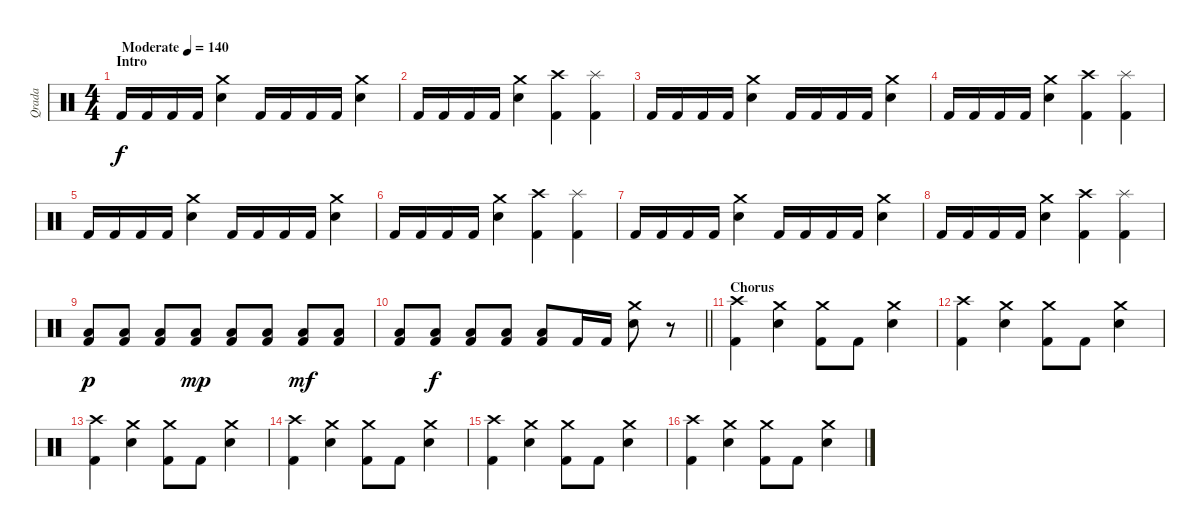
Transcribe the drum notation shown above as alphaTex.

\track ("Qrada" "Qrada") {instrument percussion}
\staff {score}
\articulation defaults
\ts (4 4)
\section ("" "Intro")
\tempo (140 "Moderate")
\clef neutral
\ks c "Kick (hit) 2".16{dy f} "Kick (hit) 2".16 "Kick (hit) 2".16 "Kick (hit) 2".16
("Snare (hit) 2" "Crash medium (hit)").4 "Kick (hit) 2".16 "Kick (hit) 2".16 "Kick (hit) 2".16 "Kick (hit) 2".16 ("Snare (hit) 2" "Crash medium (hit)").4 |
"Kick (hit) 2".16 "Kick (hit) 2".16 "Kick (hit) 2".16 "Kick (hit) 2".16 ("Snare (hit) 2" "Crash medium (hit)").4 ("Kick (hit) 2" "Crash high (hit)").4 ("Kick (hit) 2" "Splash (hit)").4 |
"Kick (hit) 2".16 "Kick (hit) 2".16 "Kick (hit) 2".16 "Kick (hit) 2".16 ("Snare (hit) 2" "Crash medium (hit)").4 "Kick (hit) 2".16 "Kick (hit) 2".16 "Kick (hit) 2".16 "Kick (hit) 2".16 ("Snare (hit) 2" "Crash medium (hit)").4 |
"Kick (hit) 2".16 "Kick (hit) 2".16 "Kick (hit) 2".16 "Kick (hit) 2".16 ("Snare (hit) 2" "Crash medium (hit)").4 ("Kick (hit) 2" "Crash high (hit)").4 ("Kick (hit) 2" "Splash (hit)").4 |
"Kick (hit) 2".16 "Kick (hit) 2".16 "Kick (hit) 2".16 "Kick (hit) 2".16 ("Snare (hit) 2" "Crash medium (hit)").4 "Kick (hit) 2".16 "Kick (hit) 2".16 "Kick (hit) 2".16 "Kick (hit) 2".16 ("Snare (hit) 2" "Crash medium (hit)").4 |
"Kick (hit) 2".16 "Kick (hit) 2".16 "Kick (hit) 2".16 "Kick (hit) 2".16 ("Snare (hit) 2" "Crash medium (hit)").4 ("Kick (hit) 2" "Crash high (hit)").4 ("Kick (hit) 2" "Splash (hit)").4 |
"Kick (hit) 2".16 "Kick (hit) 2".16 "Kick (hit) 2".16 "Kick (hit) 2".16 ("Snare (hit) 2" "Crash medium (hit)").4 "Kick (hit) 2".16 "Kick (hit) 2".16 "Kick (hit) 2".16 "Kick (hit) 2".16 ("Snare (hit) 2" "Crash medium (hit)").4 |
"Kick (hit) 2".16 "Kick (hit) 2".16 "Kick (hit) 2".16 "Kick (hit) 2".16 ("Snare (hit) 2" "Crash medium (hit)").4 ("Kick (hit) 2" "Crash high (hit)").4 ("Kick (hit) 2" "Splash (hit)").4 |
("Kick (hit) 2" "Low Floor Tom (hit)").8{dy p} ("Kick (hit) 2" "Low Floor Tom (hit)").8 ("Kick (hit) 2" "Low Floor Tom (hit)").8 ("Kick (hit) 2" "Low Floor Tom (hit)").8{dy mp} ("Kick (hit) 2" "Low Floor Tom (hit)").8 ("Kick (hit) 2" "Low Floor Tom (hit)").8 ("Kick (hit) 2" "Low Floor Tom (hit)").8{dy mf} ("Kick (hit) 2" "Low Floor Tom (hit)").8 |
\barLineRight lightlight
("Kick (hit) 2" "Low Floor Tom (hit)").8 ("Kick (hit) 2" "Low Floor Tom (hit)").8{dy f} ("Kick (hit) 2" "Low Floor Tom (hit)").8 ("Kick (hit) 2" "Low Floor Tom (hit)").8 ("Kick (hit) 2" "Low Floor Tom (hit)").8 "Kick (hit) 2".16 "Kick (hit) 2".16 ("Snare (hit) 2" "Crash medium (hit)").8 r.8 |
\section ("" "Chorus")
("Kick (hit) 2" "Crash high (hit)").4 ("Snare (hit) 2" "Crash medium (hit)").4 ("Kick (hit) 2" "Crash medium (hit)").8 "Kick (hit) 2".8 ("Snare (hit) 2" "Crash medium (hit)").4 |
("Kick (hit) 2" "Crash high (hit)").4 ("Snare (hit) 2" "Crash medium (hit)").4 ("Kick (hit) 2" "Crash medium (hit)").8 "Kick (hit) 2".8 ("Snare (hit) 2" "Crash medium (hit)").4 |
("Kick (hit) 2" "Crash high (hit)").4 ("Snare (hit) 2" "Crash medium (hit)").4 ("Kick (hit) 2" "Crash medium (hit)").8 "Kick (hit) 2".8 ("Snare (hit) 2" "Crash medium (hit)").4 |
("Kick (hit) 2" "Crash high (hit)").4 ("Snare (hit) 2" "Crash medium (hit)").4 ("Kick (hit) 2" "Crash medium (hit)").8 "Kick (hit) 2".8 ("Snare (hit) 2" "Crash medium (hit)").4 |
("Kick (hit) 2" "Crash high (hit)").4 ("Snare (hit) 2" "Crash medium (hit)").4 ("Kick (hit) 2" "Crash medium (hit)").8 "Kick (hit) 2".8 ("Snare (hit) 2" "Crash medium (hit)").4 |
("Kick (hit) 2" "Crash high (hit)").4 ("Snare (hit) 2" "Crash medium (hit)").4 ("Kick (hit) 2" "Crash medium (hit)").8 "Kick (hit) 2".8 ("Snare (hit) 2" "Crash medium (hit)").4
